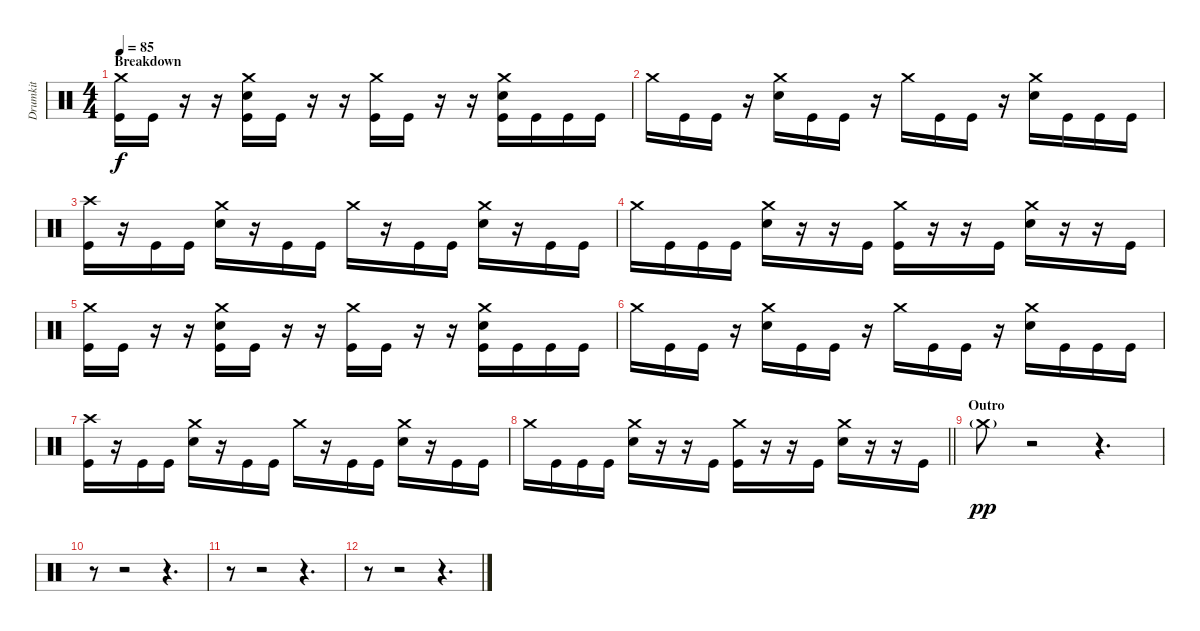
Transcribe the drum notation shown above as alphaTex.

\track ("Drumkit" "Drumkit") {instrument percussion}
\staff {score}
\articulation defaults
\ts (4 4)
\section ("" "Breakdown")
\tempo 85
\clef neutral
\ks c
("Crash medium (hit)" "Kick (hit)").16{dy f} "Kick (hit)".16 r.16 r.16 ("Crash medium (hit)" "Snare (hit) 2" "Kick (hit)").16 "Kick (hit)".16 r.16 r.16 ("Crash medium (hit)" "Kick (hit)").16 "Kick (hit)".16 r.16 r.16 ("Crash medium (hit)" "Snare (hit) 2" "Kick (hit)").16 "Kick (hit)".16 "Kick (hit)".16 "Kick (hit)".16 |
"Crash medium (hit)".16 "Kick (hit)".16 "Kick (hit)".16 r.16 ("Crash medium (hit)" "Snare (hit) 2").16 "Kick (hit)".16 "Kick (hit)".16 r.16 "Crash medium (hit)".16 "Kick (hit)".16 "Kick (hit)".16 r.16 ("Crash medium (hit)" "Snare (hit) 2").16 "Kick (hit)".16 "Kick (hit)".16 "Kick (hit)".16 |
("Crash high (hit)" "Kick (hit)").16 r.16 "Kick (hit)".16 "Kick (hit)".16 ("Crash medium (hit)" "Snare (hit) 2").16 r.16 "Kick (hit)".16 "Kick (hit)".16 "Crash medium (hit)".16 r.16 "Kick (hit)".16 "Kick (hit)".16 ("Crash medium (hit)" "Snare (hit) 2").16 r.16 "Kick (hit)".16 "Kick (hit)".16 |
"Crash medium (hit)".16 "Kick (hit)".16 "Kick (hit)".16 "Kick (hit)".16 ("Crash medium (hit)" "Snare (hit) 2").16 r.16 r.16 "Kick (hit)".16 ("Crash medium (hit)" "Kick (hit)").16 r.16 r.16 "Kick (hit)".16 ("Crash medium (hit)" "Snare (hit) 2").16 r.16 r.16 "Kick (hit)".16 |
("Crash medium (hit)" "Kick (hit)").16 "Kick (hit)".16 r.16 r.16 ("Crash medium (hit)" "Snare (hit) 2" "Kick (hit)").16 "Kick (hit)".16 r.16 r.16 ("Crash medium (hit)" "Kick (hit)").16 "Kick (hit)".16 r.16 r.16 ("Crash medium (hit)" "Snare (hit) 2" "Kick (hit)").16 "Kick (hit)".16 "Kick (hit)".16 "Kick (hit)".16 |
"Crash medium (hit)".16 "Kick (hit)".16 "Kick (hit)".16 r.16 ("Crash medium (hit)" "Snare (hit) 2").16 "Kick (hit)".16 "Kick (hit)".16 r.16 "Crash medium (hit)".16 "Kick (hit)".16 "Kick (hit)".16 r.16 ("Crash medium (hit)" "Snare (hit) 2").16 "Kick (hit)".16 "Kick (hit)".16 "Kick (hit)".16 |
("Crash high (hit)" "Kick (hit)").16 r.16 "Kick (hit)".16 "Kick (hit)".16 ("Crash medium (hit)" "Snare (hit) 2").16 r.16 "Kick (hit)".16 "Kick (hit)".16 "Crash medium (hit)".16 r.16 "Kick (hit)".16 "Kick (hit)".16 ("Crash medium (hit)" "Snare (hit) 2").16 r.16 "Kick (hit)".16 "Kick (hit)".16 |
\barLineRight lightlight "Crash medium (hit)".16 "Kick (hit)".16 "Kick (hit)".16 "Kick (hit)".16
("Crash medium (hit)" "Snare (hit) 2").16 r.16 r.16 "Kick (hit)".16 ("Crash medium (hit)" "Kick (hit)").16 r.16 r.16 "Kick (hit)".16 ("Crash medium (hit)" "Snare (hit) 2").16 r.16 r.16 "Kick (hit)".16 |
\section ("" "Outro")
"Crash medium (hit)"{g}.8{dy pp} r.2 r.4{d} |
r.8 r.2 r.4{d} |
r.8 r.2 r.4{d} |
r.8 r.2 r.4{d}
